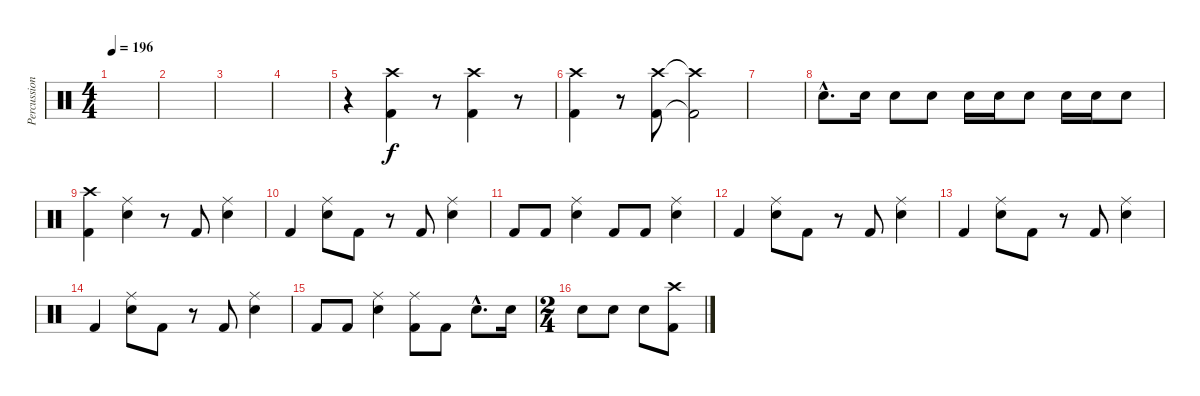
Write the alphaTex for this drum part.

\track ("Percussion" "Percussion") {instrument percussion}
\staff {score}
\articulation defaults
\ts (4 4)
\tempo 196
\clef neutral
\ks c
|
|
|
|
r.4 ("Crash high (hit)" "Kick (hit) 2").4 r.8 ("Crash high (hit)" "Kick (hit) 2").4 r.8 |
("Crash high (hit)" "Kick (hit) 2").4 r.8 ("Crash high (hit)" "Kick (hit) 2").8 ("Crash high (hit)"{t} "Kick (hit) 2"{t}).2 |
|
"Snare (hit) 2"{hac}.8{d} "Snare (hit) 2".16 "Snare (hit) 2".8 "Snare (hit) 2".8 "Snare (hit) 2".16 "Snare (hit) 2".16 "Snare (hit) 2".8 "Snare (hit) 2".16 "Snare (hit) 2".16 "Snare (hit) 2".8 |
("Crash high (hit)" "Kick (hit) 2").4 ("Ride (middle)" "Snare (hit) 2").4 r.8 "Kick (hit) 2".8 ("Ride (middle)" "Snare (hit) 2").4 |
"Kick (hit) 2".4 ("Ride (middle)" "Snare (hit) 2").8 "Kick (hit) 2".8 r.8 "Kick (hit) 2".8 ("Ride (middle)" "Snare (hit) 2").4 |
"Kick (hit) 2".8 "Kick (hit) 2".8 ("Ride (middle)" "Snare (hit) 2").4 "Kick (hit) 2".8 "Kick (hit) 2".8 ("Ride (middle)" "Snare (hit) 2").4 |
"Kick (hit) 2".4 ("Ride (middle)" "Snare (hit) 2").8 "Kick (hit) 2".8 r.8 "Kick (hit) 2".8 ("Ride (middle)" "Snare (hit) 2").4 |
"Kick (hit) 2".4 ("Ride (middle)" "Snare (hit) 2").8 "Kick (hit) 2".8 r.8 "Kick (hit) 2".8 ("Ride (middle)" "Snare (hit) 2").4 |
"Kick (hit) 2".4 ("Ride (middle)" "Snare (hit) 2").8 "Kick (hit) 2".8 r.8 "Kick (hit) 2".8 ("Ride (middle)" "Snare (hit) 2").4 |
"Kick (hit) 2".8 "Kick (hit) 2".8 ("Ride (middle)" "Snare (hit) 2").4 ("Ride (middle)" "Kick (hit) 2").8 "Kick (hit) 2".8 "Snare (hit) 2"{hac}.8{d} "Snare (hit) 2".16 |
\ts (2 4)
"Snare (hit) 2".8 "Snare (hit) 2".8 "Snare (hit) 2".8 ("Crash high (hit)" "Kick (hit) 2").8
